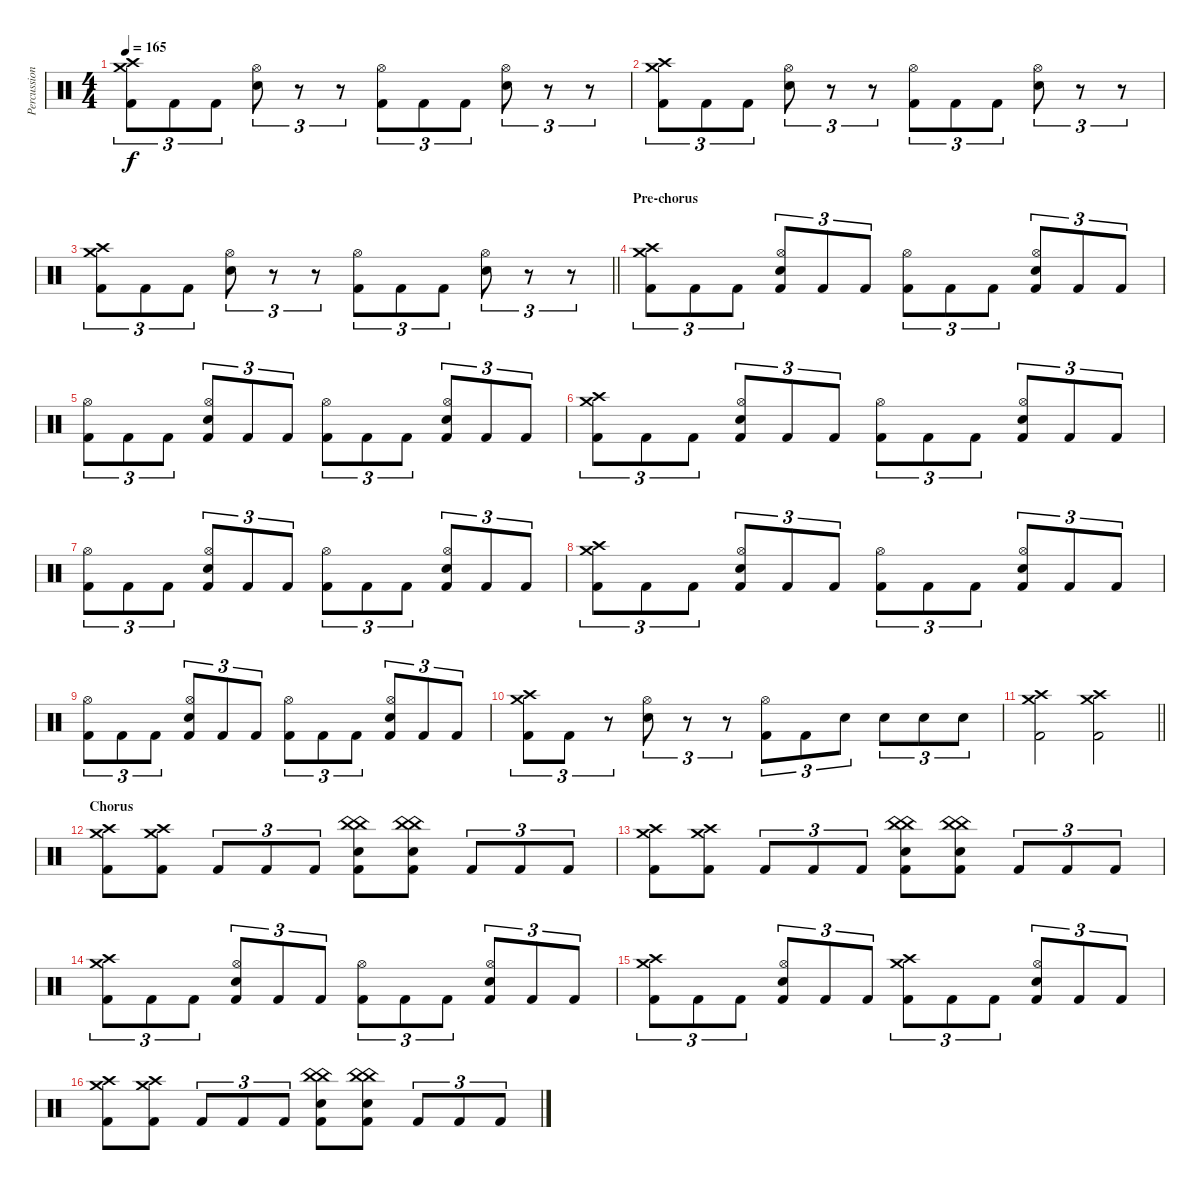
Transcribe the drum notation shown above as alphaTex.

\track ("Percussioni" "Percussion") {instrument percussion}
\staff {score}
\articulation defaults
\ts (4 4)
\tempo 165
\clef neutral
\ks c
("Crash high (hit)" "Crash medium (hit)" "Kick (hit) 2").8{tu (3 2) dy f} "Kick (hit) 2".8{tu (3 2)} "Kick (hit) 2".8{tu (3 2)} ("Hi-Hat (open)" "Electric Snare (hit)").8{tu (3 2)} r.8{tu (3 2)} r.8{tu (3 2)} ("Hi-Hat (open)" "Kick (hit) 2").8{tu (3 2)} "Kick (hit) 2".8{tu (3 2)} "Kick (hit) 2".8{tu (3 2)} ("Hi-Hat (open)" "Electric Snare (hit)").8{tu (3 2)} r.8{tu (3 2)} r.8{tu (3 2)} |
("Crash high (hit)" "Crash medium (hit)" "Kick (hit) 2").8{tu (3 2)} "Kick (hit) 2".8{tu (3 2)} "Kick (hit) 2".8{tu (3 2)} ("Hi-Hat (open)" "Electric Snare (hit)").8{tu (3 2)} r.8{tu (3 2)} r.8{tu (3 2)} ("Hi-Hat (open)" "Kick (hit) 2").8{tu (3 2)} "Kick (hit) 2".8{tu (3 2)} "Kick (hit) 2".8{tu (3 2)} ("Hi-Hat (open)" "Electric Snare (hit)").8{tu (3 2)} r.8{tu (3 2)} r.8{tu (3 2)} |
\barLineRight lightlight
("Crash high (hit)" "Crash medium (hit)" "Kick (hit) 2").8{tu (3 2)} "Kick (hit) 2".8{tu (3 2)} "Kick (hit) 2".8{tu (3 2)} ("Hi-Hat (open)" "Electric Snare (hit)").8{tu (3 2)} r.8{tu (3 2)} r.8{tu (3 2)} ("Hi-Hat (open)" "Kick (hit) 2").8{tu (3 2)} "Kick (hit) 2".8{tu (3 2)} "Kick (hit) 2".8{tu (3 2)} ("Hi-Hat (open)" "Electric Snare (hit)").8{tu (3 2)} r.8{tu (3 2)} r.8{tu (3 2)} |
\section ("" "Pre-chorus")
("Crash high (hit)" "Crash medium (hit)" "Kick (hit) 2").8{tu (3 2)} "Kick (hit) 2".8{tu (3 2)} "Kick (hit) 2".8{tu (3 2)} ("Hi-Hat (open)" "Electric Snare (hit)" "Kick (hit) 2").8{tu (3 2)} "Kick (hit) 2".8{tu (3 2)} "Kick (hit) 2".8{tu (3 2)} ("Hi-Hat (open)" "Kick (hit) 2").8{tu (3 2)} "Kick (hit) 2".8{tu (3 2)} "Kick (hit) 2".8{tu (3 2)} ("Hi-Hat (open)" "Electric Snare (hit)" "Kick (hit) 2").8{tu (3 2)} "Kick (hit) 2".8{tu (3 2)} "Kick (hit) 2".8{tu (3 2)} |
("Hi-Hat (open)" "Kick (hit) 2").8{tu (3 2)} "Kick (hit) 2".8{tu (3 2)} "Kick (hit) 2".8{tu (3 2)} ("Hi-Hat (open)" "Electric Snare (hit)" "Kick (hit) 2").8{tu (3 2)} "Kick (hit) 2".8{tu (3 2)} "Kick (hit) 2".8{tu (3 2)} ("Hi-Hat (open)" "Kick (hit) 2").8{tu (3 2)} "Kick (hit) 2".8{tu (3 2)} "Kick (hit) 2".8{tu (3 2)} ("Hi-Hat (open)" "Electric Snare (hit)" "Kick (hit) 2").8{tu (3 2)} "Kick (hit) 2".8{tu (3 2)} "Kick (hit) 2".8{tu (3 2)} |
("Crash high (hit)" "Crash medium (hit)" "Kick (hit) 2").8{tu (3 2)} "Kick (hit) 2".8{tu (3 2)} "Kick (hit) 2".8{tu (3 2)} ("Hi-Hat (open)" "Electric Snare (hit)" "Kick (hit) 2").8{tu (3 2)} "Kick (hit) 2".8{tu (3 2)} "Kick (hit) 2".8{tu (3 2)} ("Hi-Hat (open)" "Kick (hit) 2").8{tu (3 2)} "Kick (hit) 2".8{tu (3 2)} "Kick (hit) 2".8{tu (3 2)} ("Hi-Hat (open)" "Electric Snare (hit)" "Kick (hit) 2").8{tu (3 2)} "Kick (hit) 2".8{tu (3 2)} "Kick (hit) 2".8{tu (3 2)} |
("Hi-Hat (open)" "Kick (hit) 2").8{tu (3 2)} "Kick (hit) 2".8{tu (3 2)} "Kick (hit) 2".8{tu (3 2)} ("Hi-Hat (open)" "Electric Snare (hit)" "Kick (hit) 2").8{tu (3 2)} "Kick (hit) 2".8{tu (3 2)} "Kick (hit) 2".8{tu (3 2)} ("Hi-Hat (open)" "Kick (hit) 2").8{tu (3 2)} "Kick (hit) 2".8{tu (3 2)} "Kick (hit) 2".8{tu (3 2)} ("Hi-Hat (open)" "Electric Snare (hit)" "Kick (hit) 2").8{tu (3 2)} "Kick (hit) 2".8{tu (3 2)} "Kick (hit) 2".8{tu (3 2)} |
("Crash high (hit)" "Crash medium (hit)" "Kick (hit) 2").8{tu (3 2)} "Kick (hit) 2".8{tu (3 2)} "Kick (hit) 2".8{tu (3 2)} ("Hi-Hat (open)" "Electric Snare (hit)" "Kick (hit) 2").8{tu (3 2)} "Kick (hit) 2".8{tu (3 2)} "Kick (hit) 2".8{tu (3 2)} ("Hi-Hat (open)" "Kick (hit) 2").8{tu (3 2)} "Kick (hit) 2".8{tu (3 2)} "Kick (hit) 2".8{tu (3 2)} ("Hi-Hat (open)" "Electric Snare (hit)" "Kick (hit) 2").8{tu (3 2)} "Kick (hit) 2".8{tu (3 2)} "Kick (hit) 2".8{tu (3 2)} |
("Hi-Hat (open)" "Kick (hit) 2").8{tu (3 2)} "Kick (hit) 2".8{tu (3 2)} "Kick (hit) 2".8{tu (3 2)} ("Hi-Hat (open)" "Electric Snare (hit)" "Kick (hit) 2").8{tu (3 2)} "Kick (hit) 2".8{tu (3 2)} "Kick (hit) 2".8{tu (3 2)} ("Hi-Hat (open)" "Kick (hit) 2").8{tu (3 2)} "Kick (hit) 2".8{tu (3 2)} "Kick (hit) 2".8{tu (3 2)} ("Hi-Hat (open)" "Electric Snare (hit)" "Kick (hit) 2").8{tu (3 2)} "Kick (hit) 2".8{tu (3 2)} "Kick (hit) 2".8{tu (3 2)} |
("Crash high (hit)" "Crash medium (hit)" "Kick (hit) 2").8{tu (3 2)} "Kick (hit) 2".8{tu (3 2)} r.8{tu (3 2)} ("Hi-Hat (open)" "Electric Snare (hit)").8{tu (3 2)} r.8{tu (3 2)} r.8{tu (3 2)} ("Hi-Hat (open)" "Kick (hit) 2").8{tu (3 2)} "Kick (hit) 2".8{tu (3 2)} "Electric Snare (hit)".8{tu (3 2)} "Electric Snare (hit)".8{tu (3 2)} "Electric Snare (hit)".8{tu (3 2)} "Electric Snare (hit)".8{tu (3 2)} |
\barLineRight lightlight
("Crash high (hit)" "Crash medium (hit)" "Kick (hit) 2").2 ("Crash high (hit)" "Crash medium (hit)" "Kick (hit) 2").2 |
\section ("" "Chorus")
("Crash high (hit)" "Crash medium (hit)" "Kick (hit) 2").8 ("Crash high (hit)" "Crash medium (hit)" "Kick (hit) 2").8 "Kick (hit) 2".8{tu (3 2)} "Kick (hit) 2".8{tu (3 2)} "Kick (hit) 2".8{tu (3 2)} ("China (hit)" "China (hit)" "Electric Snare (hit)" "Kick (hit) 2").8 ("China (hit)" "China (hit)" "Electric Snare (hit)" "Kick (hit) 2").8 "Kick (hit) 2".8{tu (3 2)} "Kick (hit) 2".8{tu (3 2)} "Kick (hit) 2".8{tu (3 2)} |
("Crash high (hit)" "Crash medium (hit)" "Kick (hit) 2").8 ("Crash high (hit)" "Crash medium (hit)" "Kick (hit) 2").8 "Kick (hit) 2".8{tu (3 2)} "Kick (hit) 2".8{tu (3 2)} "Kick (hit) 2".8{tu (3 2)} ("China (hit)" "China (hit)" "Electric Snare (hit)" "Kick (hit) 2").8 ("China (hit)" "China (hit)" "Electric Snare (hit)" "Kick (hit) 2").8 "Kick (hit) 2".8{tu (3 2)} "Kick (hit) 2".8{tu (3 2)} "Kick (hit) 2".8{tu (3 2)} |
("Crash high (hit)" "Crash medium (hit)" "Kick (hit) 2").8{tu (3 2)} "Kick (hit) 2".8{tu (3 2)} "Kick (hit) 2".8{tu (3 2)} ("Hi-Hat (open)" "Electric Snare (hit)" "Kick (hit) 2").8{tu (3 2)} "Kick (hit) 2".8{tu (3 2)} "Kick (hit) 2".8{tu (3 2)} ("Hi-Hat (open)" "Kick (hit) 2").8{tu (3 2)} "Kick (hit) 2".8{tu (3 2)} "Kick (hit) 2".8{tu (3 2)} ("Hi-Hat (open)" "Electric Snare (hit)" "Kick (hit) 2").8{tu (3 2)} "Kick (hit) 2".8{tu (3 2)} "Kick (hit) 2".8{tu (3 2)} |
("Crash high (hit)" "Crash medium (hit)" "Kick (hit) 2").8{tu (3 2)} "Kick (hit) 2".8{tu (3 2)} "Kick (hit) 2".8{tu (3 2)} ("Hi-Hat (open)" "Electric Snare (hit)" "Kick (hit) 2").8{tu (3 2)} "Kick (hit) 2".8{tu (3 2)} "Kick (hit) 2".8{tu (3 2)} ("Crash high (hit)" "Crash medium (hit)" "Kick (hit) 2").8{tu (3 2)} "Kick (hit) 2".8{tu (3 2)} "Kick (hit) 2".8{tu (3 2)} ("Hi-Hat (open)" "Electric Snare (hit)" "Kick (hit) 2").8{tu (3 2)} "Kick (hit) 2".8{tu (3 2)} "Kick (hit) 2".8{tu (3 2)} |
("Crash high (hit)" "Crash medium (hit)" "Kick (hit) 2").8 ("Crash high (hit)" "Crash medium (hit)" "Kick (hit) 2").8 "Kick (hit) 2".8{tu (3 2)} "Kick (hit) 2".8{tu (3 2)} "Kick (hit) 2".8{tu (3 2)} ("China (hit)" "China (hit)" "Electric Snare (hit)" "Kick (hit) 2").8 ("China (hit)" "China (hit)" "Electric Snare (hit)" "Kick (hit) 2").8 "Kick (hit) 2".8{tu (3 2)} "Kick (hit) 2".8{tu (3 2)} "Kick (hit) 2".8{tu (3 2)}
